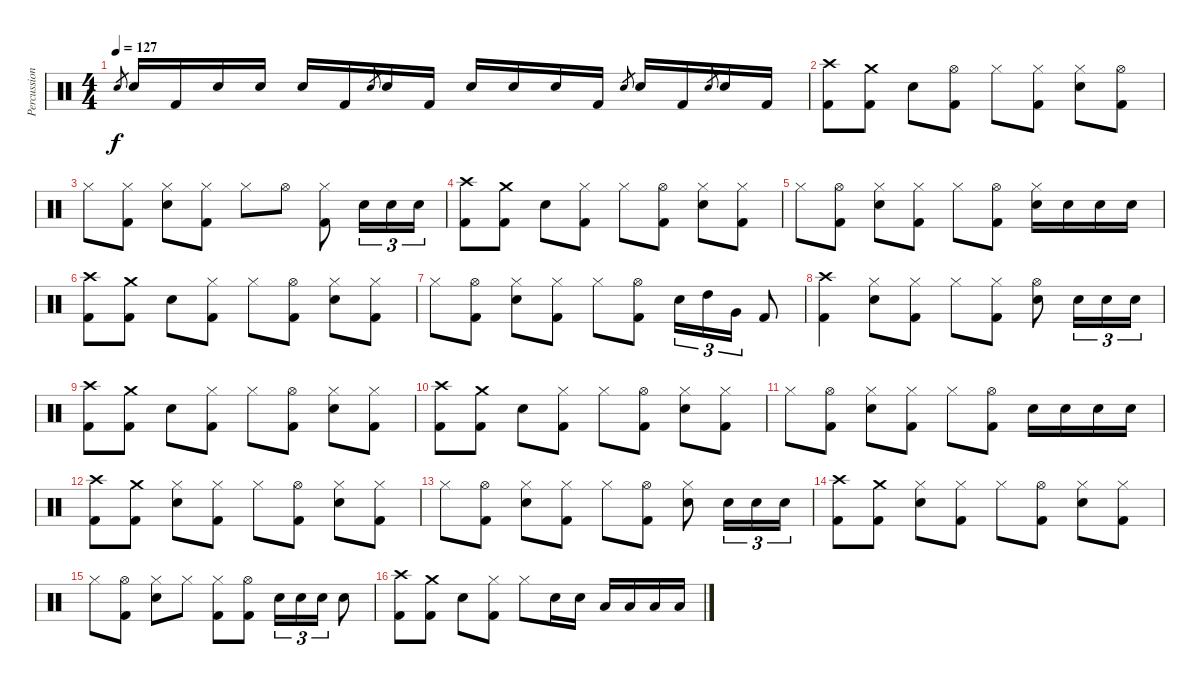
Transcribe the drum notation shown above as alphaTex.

\track ("Percussion" "Percussion") {instrument percussion}
\staff {score}
\articulation defaults
\ts (4 4)
\tempo 127
\clef neutral
\ks c "Snare (hit) 2".8{gr dy f} "Snare (hit) 2".16 "Kick (hit) 2".16 "Snare (hit) 2".16 "Snare (hit) 2".16 "Snare (hit) 2".16 "Kick (hit) 2".16 "Snare (hit) 2".8{gr} "Snare (hit) 2".16 "Kick (hit) 2".16 "Snare (hit) 2".16 "Snare (hit) 2".16 "Snare (hit) 2".16 "Kick (hit) 2".16 "Snare (hit) 2".8{gr} "Snare (hit) 2".16 "Kick (hit) 2".16 "Snare (hit) 2".8{gr} "Snare (hit) 2".16 "Kick (hit) 2".16
|
("Kick (hit) 2" "Crash high (hit)").8 ("Kick (hit) 2" "Crash medium (hit)").8 "Snare (hit) 2".8 ("Kick (hit) 2" "Hi-Hat (open)").8 "Hi-Hat (closed)".8 ("Kick (hit) 2" "Hi-Hat (closed)").8 ("Snare (hit) 2" "Hi-Hat (closed)").8 ("Kick (hit) 2" "Hi-Hat (open)").8 |
"Hi-Hat (closed)".8 ("Kick (hit) 2" "Hi-Hat (closed)").8 ("Snare (hit) 2" "Hi-Hat (closed)").8 ("Kick (hit) 2" "Hi-Hat (closed)").8 "Hi-Hat (closed)".8 "Hi-Hat (open)".8 ("Kick (hit) 2" "Hi-Hat (closed)").8 "Snare (hit) 2".16{tu (3 2)} "Snare (hit) 2".16{tu (3 2)} "Snare (hit) 2".16{tu (3 2)} |
("Kick (hit) 2" "Crash high (hit)").8 ("Kick (hit) 2" "Crash medium (hit)").8 "Snare (hit) 2".8 ("Kick (hit) 2" "Hi-Hat (closed)").8 "Hi-Hat (closed)".8 ("Kick (hit) 2" "Hi-Hat (open)").8 ("Snare (hit) 2" "Hi-Hat (closed)").8 ("Kick (hit) 2" "Hi-Hat (closed)").8 |
"Hi-Hat (closed)".8 ("Kick (hit) 2" "Hi-Hat (open)").8 ("Snare (hit) 2" "Hi-Hat (closed)").8 ("Kick (hit) 2" "Hi-Hat (closed)").8 "Hi-Hat (closed)".8 ("Kick (hit) 2" "Hi-Hat (open)").8 ("Snare (hit) 2" "Hi-Hat (closed)").16 "Snare (hit) 2".16 "Snare (hit) 2".16 "Snare (hit) 2".16 |
("Kick (hit) 2" "Crash high (hit)").8 ("Kick (hit) 2" "Crash medium (hit)").8 "Snare (hit) 2".8 ("Kick (hit) 2" "Hi-Hat (closed)").8 "Hi-Hat (closed)".8 ("Kick (hit) 2" "Hi-Hat (open)").8 ("Snare (hit) 2" "Hi-Hat (closed)").8 ("Kick (hit) 2" "Hi-Hat (closed)").8 |
"Hi-Hat (closed)".8 ("Kick (hit) 2" "Hi-Hat (open)").8 ("Snare (hit) 2" "Hi-Hat (closed)").8 ("Kick (hit) 2" "Hi-Hat (closed)").8 "Hi-Hat (closed)".8 ("Kick (hit) 2" "Hi-Hat (open)").8 "Snare (hit) 2".16{tu (3 2)} "High Tom (hit)".16{tu (3 2)} "Very Low Tom (hit)".16{tu (3 2)} "Kick (hit) 2".8 |
("Kick (hit) 2" "Crash high (hit)").4 ("Snare (hit) 2" "Hi-Hat (closed)").8 ("Kick (hit) 2" "Hi-Hat (closed)").8 "Hi-Hat (closed)".8 ("Kick (hit) 2" "Hi-Hat (closed)").8 ("Snare (hit) 2" "Hi-Hat (open)").8 "Snare (hit) 2".16{tu (3 2)} "Snare (hit) 2".16{tu (3 2)} "Snare (hit) 2".16{tu (3 2)} |
("Kick (hit) 2" "Crash high (hit)").8 ("Kick (hit) 2" "Crash medium (hit)").8 "Snare (hit) 2".8 ("Kick (hit) 2" "Hi-Hat (closed)").8 "Hi-Hat (closed)".8 ("Kick (hit) 2" "Hi-Hat (open)").8 ("Snare (hit) 2" "Hi-Hat (closed)").8 ("Kick (hit) 2" "Hi-Hat (closed)").8 |
("Kick (hit) 2" "Crash high (hit)").8 ("Kick (hit) 2" "Crash medium (hit)").8 "Snare (hit) 2".8 ("Kick (hit) 2" "Hi-Hat (closed)").8 "Hi-Hat (closed)".8 ("Kick (hit) 2" "Hi-Hat (open)").8 ("Snare (hit) 2" "Hi-Hat (closed)").8 ("Kick (hit) 2" "Hi-Hat (closed)").8 |
"Hi-Hat (closed)".8 ("Kick (hit) 2" "Hi-Hat (open)").8 ("Snare (hit) 2" "Hi-Hat (closed)").8 ("Kick (hit) 2" "Hi-Hat (closed)").8 "Hi-Hat (closed)".8 ("Kick (hit) 2" "Hi-Hat (open)").8 "Snare (hit) 2".16 "Snare (hit) 2".16 "Snare (hit) 2".16 "Snare (hit) 2".16 |
("Kick (hit) 2" "Crash high (hit)").8 ("Kick (hit) 2" "Crash medium (hit)").8 ("Snare (hit) 2" "Hi-Hat (closed)").8 ("Kick (hit) 2" "Hi-Hat (closed)").8 "Hi-Hat (closed)".8 ("Kick (hit) 2" "Hi-Hat (open)").8 ("Snare (hit) 2" "Hi-Hat (closed)").8 ("Kick (hit) 2" "Hi-Hat (closed)").8 |
"Hi-Hat (closed)".8 ("Kick (hit) 2" "Hi-Hat (open)").8 ("Snare (hit) 2" "Hi-Hat (closed)").8 ("Kick (hit) 2" "Hi-Hat (closed)").8 "Hi-Hat (closed)".8 ("Kick (hit) 2" "Hi-Hat (open)").8 ("Snare (hit) 2" "Hi-Hat (closed)").8 "Snare (hit) 2".16{tu (3 2)} "Snare (hit) 2".16{tu (3 2)} "Snare (hit) 2".16{tu (3 2)} |
("Kick (hit) 2" "Crash high (hit)").8 ("Kick (hit) 2" "Crash medium (hit)").8 ("Snare (hit) 2" "Hi-Hat (closed)").8 ("Kick (hit) 2" "Hi-Hat (closed)").8 "Hi-Hat (closed)".8 ("Kick (hit) 2" "Hi-Hat (open)").8 ("Snare (hit) 2" "Hi-Hat (closed)").8 ("Kick (hit) 2" "Hi-Hat (closed)").8 |
"Hi-Hat (closed)".8 ("Kick (hit) 2" "Hi-Hat (open)").8 ("Snare (hit) 2" "Hi-Hat (closed)").8 "Hi-Hat (closed)".8 ("Kick (hit) 2" "Hi-Hat (closed)").8 ("Kick (hit) 2" "Hi-Hat (open)").8 "Snare (hit) 2".16{tu (3 2)} "Snare (hit) 2".16{tu (3 2)} "Snare (hit) 2".16{tu (3 2)} "Snare (hit) 2".8 |
("Kick (hit) 2" "Crash high (hit)").8 ("Kick (hit) 2" "Crash medium (hit)").8 "Snare (hit) 2".8 ("Kick (hit) 2" "Hi-Hat (closed)").8 "Hi-Hat (closed)".8 "Snare (hit) 2".16 "Snare (hit) 2".16 "Low Tom (hit)".16 "Low Tom (hit)".16 "Low Tom (hit)".16 "Low Tom (hit)".16
